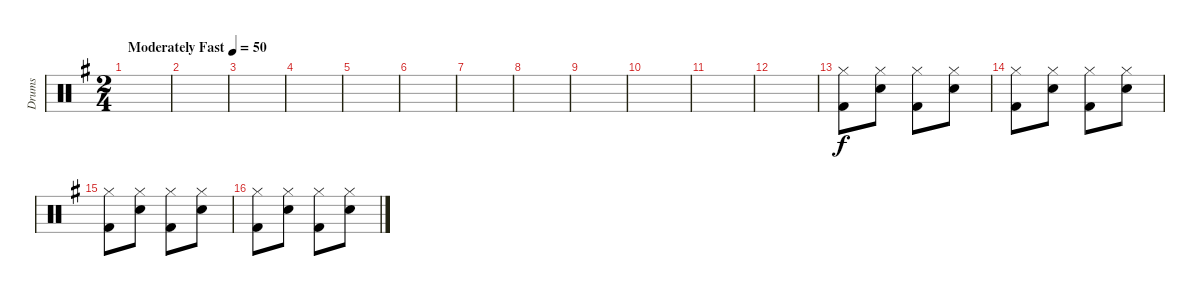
\track ("Drums" "Drums") {instrument percussion}
\staff {score}
\articulation defaults
\ts (2 4)
\tempo (50 "Moderately Fast")
\clef neutral
\ks g
|
|
|
|
|
|
|
|
|
|
|
|
("Hi-Hat (closed)" "Kick (hit) 2").8 ("Hi-Hat (closed)" "Electric Snare (hit)").8 ("Hi-Hat (closed)" "Kick (hit) 2").8 ("Hi-Hat (closed)" "Electric Snare (hit)").8 |
("Hi-Hat (closed)" "Kick (hit) 2").8 ("Hi-Hat (closed)" "Electric Snare (hit)").8 ("Hi-Hat (closed)" "Kick (hit) 2").8 ("Hi-Hat (closed)" "Electric Snare (hit)").8 |
("Hi-Hat (closed)" "Kick (hit) 2").8 ("Hi-Hat (closed)" "Electric Snare (hit)").8 ("Hi-Hat (closed)" "Kick (hit) 2").8 ("Hi-Hat (closed)" "Electric Snare (hit)").8 |
("Hi-Hat (closed)" "Kick (hit) 2").8 ("Hi-Hat (closed)" "Electric Snare (hit)").8 ("Hi-Hat (closed)" "Kick (hit) 2").8 ("Hi-Hat (closed)" "Electric Snare (hit)").8
